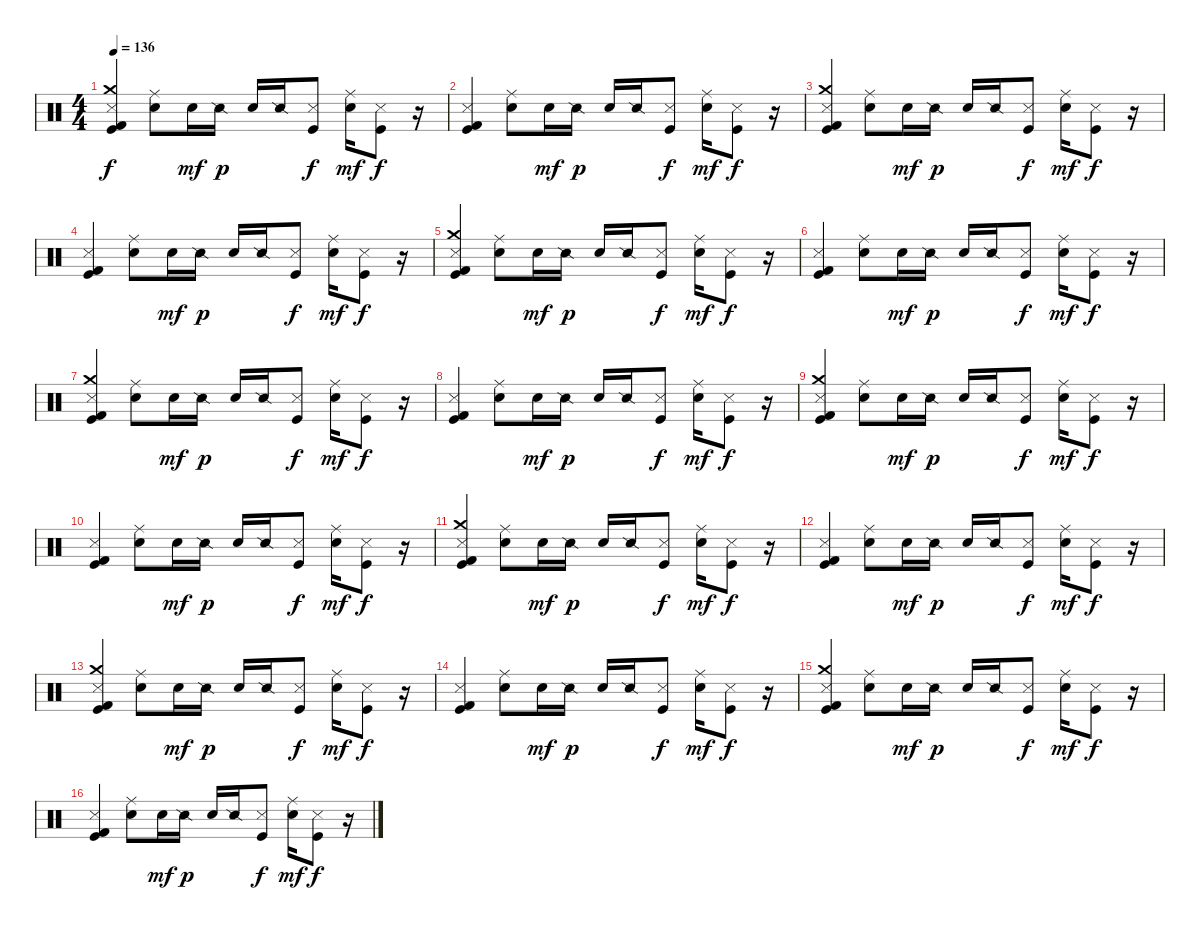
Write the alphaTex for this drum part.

\track "" {instrument percussion}
\staff {score}
\articulation defaults
\ts (4 4)
\tempo 136
\clef neutral
\ks c
("Metronome (hit)" "Kick (hit) 2" "Crash medium (hit)" "Kick (hit)").4{dy f} ("Ride (middle)" "Metronome (bell)").8 "Electric Snare (hit)".16{dy mf} "Snare (side stick) 2".16{dy p} "Electric Snare (hit)".16 "Snare (side stick) 2".16 ("Metronome (hit)" "Kick (hit)").8{dy f} ("Ride (middle)" "Electric Snare (hit)").16{dy mf} ("Metronome (hit)" "Kick (hit)").8{dy f} r.16 |
("Metronome (hit)" "Kick (hit) 2" "Kick (hit)").4 ("Ride (middle)" "Metronome (bell)").8 "Electric Snare (hit)".16{dy mf} "Snare (side stick) 2".16{dy p} "Electric Snare (hit)".16 "Snare (side stick) 2".16 ("Metronome (hit)" "Kick (hit)").8{dy f} ("Ride (middle)" "Electric Snare (hit)").16{dy mf} ("Metronome (hit)" "Kick (hit)").8{dy f} r.16 |
("Metronome (hit)" "Kick (hit) 2" "Crash medium (hit)" "Kick (hit)").4 ("Ride (middle)" "Metronome (bell)").8 "Electric Snare (hit)".16{dy mf} "Snare (side stick) 2".16{dy p} "Electric Snare (hit)".16 "Snare (side stick) 2".16 ("Metronome (hit)" "Kick (hit)").8{dy f} ("Ride (middle)" "Electric Snare (hit)").16{dy mf} ("Metronome (hit)" "Kick (hit)").8{dy f} r.16 |
("Metronome (hit)" "Kick (hit) 2" "Kick (hit)").4 ("Ride (middle)" "Metronome (bell)").8 "Electric Snare (hit)".16{dy mf} "Snare (side stick) 2".16{dy p} "Electric Snare (hit)".16 "Snare (side stick) 2".16 ("Metronome (hit)" "Kick (hit)").8{dy f} ("Ride (middle)" "Electric Snare (hit)").16{dy mf} ("Metronome (hit)" "Kick (hit)").8{dy f} r.16 |
("Metronome (hit)" "Kick (hit) 2" "Crash medium (hit)" "Kick (hit)").4 ("Ride (middle)" "Metronome (bell)").8 "Electric Snare (hit)".16{dy mf} "Snare (side stick) 2".16{dy p} "Electric Snare (hit)".16 "Snare (side stick) 2".16 ("Metronome (hit)" "Kick (hit)").8{dy f} ("Ride (middle)" "Electric Snare (hit)").16{dy mf} ("Metronome (hit)" "Kick (hit)").8{dy f} r.16 |
("Metronome (hit)" "Kick (hit) 2" "Kick (hit)").4 ("Ride (middle)" "Metronome (bell)").8 "Electric Snare (hit)".16{dy mf} "Snare (side stick) 2".16{dy p} "Electric Snare (hit)".16 "Snare (side stick) 2".16 ("Metronome (hit)" "Kick (hit)").8{dy f} ("Ride (middle)" "Electric Snare (hit)").16{dy mf} ("Metronome (hit)" "Kick (hit)").8{dy f} r.16 |
("Metronome (hit)" "Kick (hit) 2" "Crash medium (hit)" "Kick (hit)").4 ("Ride (middle)" "Metronome (bell)").8 "Electric Snare (hit)".16{dy mf} "Snare (side stick) 2".16{dy p} "Electric Snare (hit)".16 "Snare (side stick) 2".16 ("Metronome (hit)" "Kick (hit)").8{dy f} ("Ride (middle)" "Electric Snare (hit)").16{dy mf} ("Metronome (hit)" "Kick (hit)").8{dy f} r.16 |
("Metronome (hit)" "Kick (hit) 2" "Kick (hit)").4 ("Ride (middle)" "Metronome (bell)").8 "Electric Snare (hit)".16{dy mf} "Snare (side stick) 2".16{dy p} "Electric Snare (hit)".16 "Snare (side stick) 2".16 ("Metronome (hit)" "Kick (hit)").8{dy f} ("Ride (middle)" "Electric Snare (hit)").16{dy mf} ("Metronome (hit)" "Kick (hit)").8{dy f} r.16 |
("Metronome (hit)" "Kick (hit) 2" "Crash medium (hit)" "Kick (hit)").4 ("Ride (middle)" "Metronome (bell)").8 "Electric Snare (hit)".16{dy mf} "Snare (side stick) 2".16{dy p} "Electric Snare (hit)".16 "Snare (side stick) 2".16 ("Metronome (hit)" "Kick (hit)").8{dy f} ("Ride (middle)" "Electric Snare (hit)").16{dy mf} ("Metronome (hit)" "Kick (hit)").8{dy f} r.16 |
("Metronome (hit)" "Kick (hit) 2" "Kick (hit)").4 ("Ride (middle)" "Metronome (bell)").8 "Electric Snare (hit)".16{dy mf} "Snare (side stick) 2".16{dy p} "Electric Snare (hit)".16 "Snare (side stick) 2".16 ("Metronome (hit)" "Kick (hit)").8{dy f} ("Ride (middle)" "Electric Snare (hit)").16{dy mf} ("Metronome (hit)" "Kick (hit)").8{dy f} r.16 |
("Metronome (hit)" "Kick (hit) 2" "Crash medium (hit)" "Kick (hit)").4 ("Ride (middle)" "Metronome (bell)").8 "Electric Snare (hit)".16{dy mf} "Snare (side stick) 2".16{dy p} "Electric Snare (hit)".16 "Snare (side stick) 2".16 ("Metronome (hit)" "Kick (hit)").8{dy f} ("Ride (middle)" "Electric Snare (hit)").16{dy mf} ("Metronome (hit)" "Kick (hit)").8{dy f} r.16 |
("Metronome (hit)" "Kick (hit) 2" "Kick (hit)").4 ("Ride (middle)" "Metronome (bell)").8 "Electric Snare (hit)".16{dy mf} "Snare (side stick) 2".16{dy p} "Electric Snare (hit)".16 "Snare (side stick) 2".16 ("Metronome (hit)" "Kick (hit)").8{dy f} ("Ride (middle)" "Electric Snare (hit)").16{dy mf} ("Metronome (hit)" "Kick (hit)").8{dy f} r.16 |
("Metronome (hit)" "Kick (hit) 2" "Crash medium (hit)" "Kick (hit)").4 ("Ride (middle)" "Metronome (bell)").8 "Electric Snare (hit)".16{dy mf} "Snare (side stick) 2".16{dy p} "Electric Snare (hit)".16 "Snare (side stick) 2".16 ("Metronome (hit)" "Kick (hit)").8{dy f} ("Ride (middle)" "Electric Snare (hit)").16{dy mf} ("Metronome (hit)" "Kick (hit)").8{dy f} r.16 |
("Metronome (hit)" "Kick (hit) 2" "Kick (hit)").4 ("Ride (middle)" "Metronome (bell)").8 "Electric Snare (hit)".16{dy mf} "Snare (side stick) 2".16{dy p} "Electric Snare (hit)".16 "Snare (side stick) 2".16 ("Metronome (hit)" "Kick (hit)").8{dy f} ("Ride (middle)" "Electric Snare (hit)").16{dy mf} ("Metronome (hit)" "Kick (hit)").8{dy f} r.16 |
("Metronome (hit)" "Kick (hit) 2" "Crash medium (hit)" "Kick (hit)").4 ("Ride (middle)" "Metronome (bell)").8 "Electric Snare (hit)".16{dy mf} "Snare (side stick) 2".16{dy p} "Electric Snare (hit)".16 "Snare (side stick) 2".16 ("Metronome (hit)" "Kick (hit)").8{dy f} ("Ride (middle)" "Electric Snare (hit)").16{dy mf} ("Metronome (hit)" "Kick (hit)").8{dy f} r.16 |
("Metronome (hit)" "Kick (hit) 2" "Kick (hit)").4 ("Ride (middle)" "Metronome (bell)").8 "Electric Snare (hit)".16{dy mf} "Snare (side stick) 2".16{dy p} "Electric Snare (hit)".16 "Snare (side stick) 2".16 ("Metronome (hit)" "Kick (hit)").8{dy f} ("Ride (middle)" "Electric Snare (hit)").16{dy mf} ("Metronome (hit)" "Kick (hit)").8{dy f} r.16
